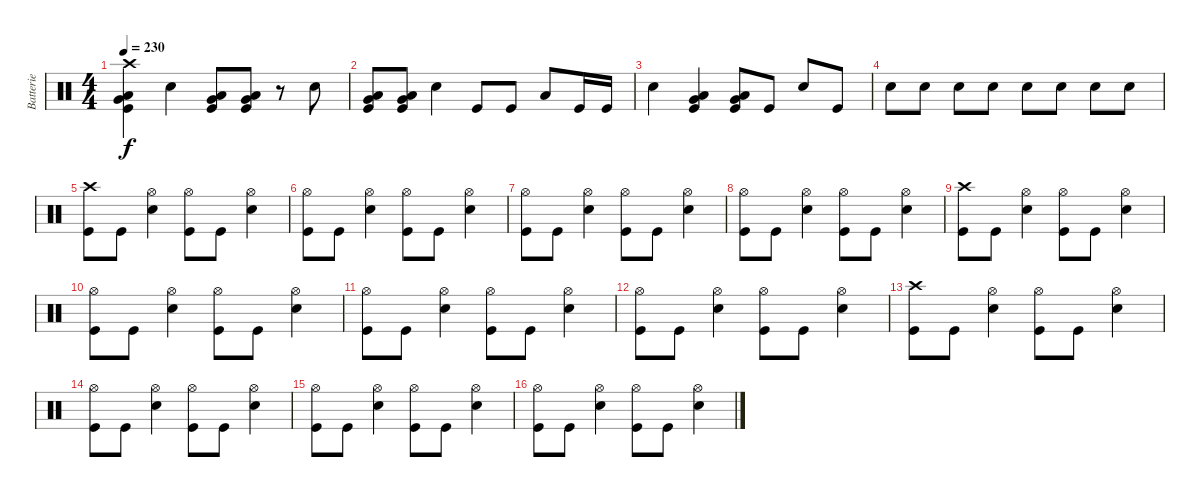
\track ("Batterie" "Batterie") {instrument percussion}
\staff {score}
\articulation defaults
\ts (4 4)
\tempo 230
\clef neutral
\ks c
("Crash high (hit)" "Very Low Tom (hit)" "Low Tom (hit)" "Kick (hit)").4{dy f} "Snare (hit) 2".4 ("Very Low Tom (hit)" "Low Tom (hit)" "Kick (hit)").8 ("Very Low Tom (hit)" "Low Tom (hit)" "Kick (hit)").8 r.8 "Snare (hit) 2".8 |
("Very Low Tom (hit)" "Low Tom (hit)" "Kick (hit)").8 ("Very Low Tom (hit)" "Low Tom (hit)" "Kick (hit)").8 "Snare (hit) 2".4 "Kick (hit)".8 "Kick (hit)".8 "Low Tom (hit)".8 "Kick (hit)".16 "Kick (hit)".16 |
"Snare (hit) 2".4 ("Very Low Tom (hit)" "Low Tom (hit)" "Kick (hit)").4 ("Very Low Tom (hit)" "Low Tom (hit)" "Kick (hit)").8 "Kick (hit)".8 "Snare (hit) 2".8 "Kick (hit)".8 |
"Snare (hit) 2".8 "Snare (hit) 2".8 "Snare (hit) 2".8 "Snare (hit) 2".8 "Snare (hit) 2".8 "Snare (hit) 2".8 "Snare (hit) 2".8 "Snare (hit) 2".8 |
("Crash high (hit)" "Kick (hit)").8 "Kick (hit)".8 ("Hi-Hat (open)" "Snare (hit) 2").4 ("Hi-Hat (open)" "Kick (hit)").8 "Kick (hit)".8 ("Hi-Hat (open)" "Snare (hit) 2").4 |
("Hi-Hat (open)" "Kick (hit)").8 "Kick (hit)".8 ("Hi-Hat (open)" "Snare (hit) 2").4 ("Hi-Hat (open)" "Kick (hit)").8 "Kick (hit)".8 ("Hi-Hat (open)" "Snare (hit) 2").4 |
("Hi-Hat (open)" "Kick (hit)").8 "Kick (hit)".8 ("Hi-Hat (open)" "Snare (hit) 2").4 ("Hi-Hat (open)" "Kick (hit)").8 "Kick (hit)".8 ("Hi-Hat (open)" "Snare (hit) 2").4 |
("Hi-Hat (open)" "Kick (hit)").8 "Kick (hit)".8 ("Hi-Hat (open)" "Snare (hit) 2").4 ("Hi-Hat (open)" "Kick (hit)").8 "Kick (hit)".8 ("Hi-Hat (open)" "Snare (hit) 2").4 |
("Crash high (hit)" "Kick (hit)").8 "Kick (hit)".8 ("Hi-Hat (open)" "Snare (hit) 2").4 ("Hi-Hat (open)" "Kick (hit)").8 "Kick (hit)".8 ("Hi-Hat (open)" "Snare (hit) 2").4 |
("Hi-Hat (open)" "Kick (hit)").8 "Kick (hit)".8 ("Hi-Hat (open)" "Snare (hit) 2").4 ("Hi-Hat (open)" "Kick (hit)").8 "Kick (hit)".8 ("Hi-Hat (open)" "Snare (hit) 2").4 |
("Hi-Hat (open)" "Kick (hit)").8 "Kick (hit)".8 ("Hi-Hat (open)" "Snare (hit) 2").4 ("Hi-Hat (open)" "Kick (hit)").8 "Kick (hit)".8 ("Hi-Hat (open)" "Snare (hit) 2").4 |
("Hi-Hat (open)" "Kick (hit)").8 "Kick (hit)".8 ("Hi-Hat (open)" "Snare (hit) 2").4 ("Hi-Hat (open)" "Kick (hit)").8 "Kick (hit)".8 ("Hi-Hat (open)" "Snare (hit) 2").4 |
("Crash high (hit)" "Kick (hit)").8 "Kick (hit)".8 ("Hi-Hat (open)" "Snare (hit) 2").4 ("Hi-Hat (open)" "Kick (hit)").8 "Kick (hit)".8 ("Hi-Hat (open)" "Snare (hit) 2").4 |
("Hi-Hat (open)" "Kick (hit)").8 "Kick (hit)".8 ("Hi-Hat (open)" "Snare (hit) 2").4 ("Hi-Hat (open)" "Kick (hit)").8 "Kick (hit)".8 ("Hi-Hat (open)" "Snare (hit) 2").4 |
("Hi-Hat (open)" "Kick (hit)").8 "Kick (hit)".8 ("Hi-Hat (open)" "Snare (hit) 2").4 ("Hi-Hat (open)" "Kick (hit)").8 "Kick (hit)".8 ("Hi-Hat (open)" "Snare (hit) 2").4 |
("Hi-Hat (open)" "Kick (hit)").8 "Kick (hit)".8 ("Hi-Hat (open)" "Snare (hit) 2").4 ("Hi-Hat (open)" "Kick (hit)").8 "Kick (hit)".8 ("Hi-Hat (open)" "Snare (hit) 2").4
